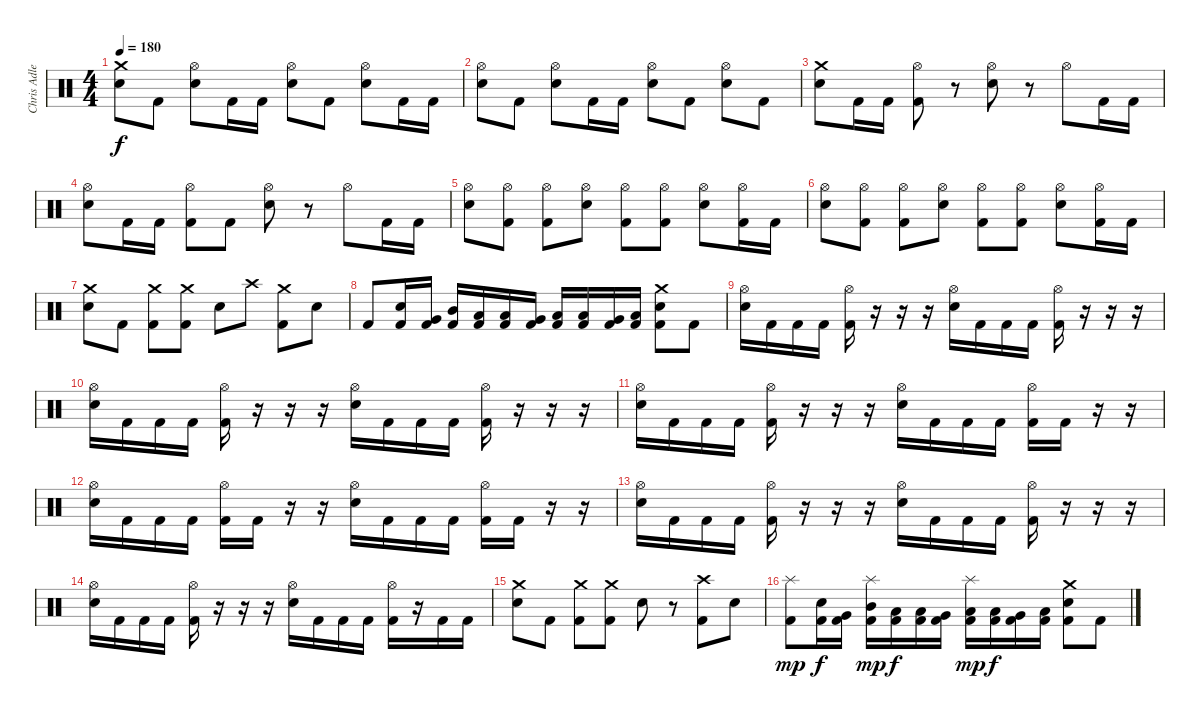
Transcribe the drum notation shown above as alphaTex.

\track ("Chris Adler" "Chris Adle") {instrument percussion}
\staff {score}
\articulation defaults
\ts (4 4)
\tempo 180
\clef neutral
\ks c
("Crash medium (hit)" "Electric Snare (hit)").8{dy f} "Kick (hit) 2".8 ("Hi-Hat (open)" "Electric Snare (hit)").8 "Kick (hit) 2".16 "Kick (hit) 2".16 ("Hi-Hat (open)" "Electric Snare (hit)").8 "Kick (hit) 2".8 ("Hi-Hat (open)" "Electric Snare (hit)").8 "Kick (hit) 2".16 "Kick (hit) 2".16 |
("Hi-Hat (open)" "Electric Snare (hit)").8 "Kick (hit) 2".8 ("Hi-Hat (open)" "Electric Snare (hit)").8 "Kick (hit) 2".16 "Kick (hit) 2".16 ("Hi-Hat (open)" "Electric Snare (hit)").8 "Kick (hit) 2".8 ("Hi-Hat (open)" "Electric Snare (hit)").8 "Kick (hit) 2".8 |
("Crash medium (hit)" "Electric Snare (hit)").8 "Kick (hit) 2".16 "Kick (hit) 2".16 ("Hi-Hat (open)" "Kick (hit) 2").8 r.8 ("Hi-Hat (open)" "Electric Snare (hit)").8 r.8 "Hi-Hat (open)".8 "Kick (hit) 2".16 "Kick (hit) 2".16 |
("Hi-Hat (open)" "Electric Snare (hit)").8 "Kick (hit) 2".16 "Kick (hit) 2".16 ("Hi-Hat (open)" "Kick (hit) 2").8 "Kick (hit) 2".8 ("Hi-Hat (open)" "Electric Snare (hit)").8 r.8 "Hi-Hat (open)".8 "Kick (hit) 2".16 "Kick (hit) 2".16 |
("Hi-Hat (open)" "Electric Snare (hit)").8 ("Hi-Hat (open)" "Kick (hit) 2").8 ("Hi-Hat (open)" "Kick (hit) 2").8 ("Hi-Hat (open)" "Electric Snare (hit)").8 ("Hi-Hat (open)" "Kick (hit) 2").8 ("Hi-Hat (open)" "Kick (hit) 2").8 ("Hi-Hat (open)" "Electric Snare (hit)").8 ("Hi-Hat (open)" "Kick (hit) 2").16 "Kick (hit) 2".16 |
("Hi-Hat (open)" "Electric Snare (hit)").8 ("Hi-Hat (open)" "Kick (hit) 2").8 ("Hi-Hat (open)" "Kick (hit) 2").8 ("Hi-Hat (open)" "Electric Snare (hit)").8 ("Hi-Hat (open)" "Kick (hit) 2").8 ("Hi-Hat (open)" "Kick (hit) 2").8 ("Hi-Hat (open)" "Electric Snare (hit)").8 ("Hi-Hat (open)" "Kick (hit) 2").16 "Kick (hit) 2".16 |
("Crash medium (hit)" "Electric Snare (hit)").8 "Kick (hit) 2".8 ("Crash medium (hit)" "Kick (hit) 2").8 ("Crash medium (hit)" "Kick (hit) 2").8 "Electric Snare (hit)".8 "Crash high (hit)".8 ("Crash medium (hit)" "Kick (hit) 2").8 "Electric Snare (hit)".8 |
"Kick (hit) 2".8 ("Electric Snare (hit)" "Kick (hit) 2").16 ("Very Low Tom (hit)" "Kick (hit) 2").16 ("Mid Tom (hit)" "Kick (hit) 2").16 ("Low Tom (hit)" "Kick (hit) 2").16 ("Low Floor Tom (hit)" "Kick (hit) 2").16 ("Very Low Tom (hit)" "Kick (hit) 2").16 ("Low Tom (hit)" "Kick (hit) 2").16 ("Low Floor Tom (hit)" "Kick (hit) 2").16 ("Very Low Tom (hit)" "Kick (hit) 2").16 ("Low Tom (hit)" "Kick (hit) 2").16 ("Crash medium (hit)" "Electric Snare (hit)" "Kick (hit) 2").8 "Kick (hit) 2".8 |
("Hi-Hat (open)" "Electric Snare (hit)").16 "Kick (hit) 2".16 "Kick (hit) 2".16 "Kick (hit) 2".16 ("Hi-Hat (open)" "Kick (hit) 2").16 r.16 r.16 r.16 ("Hi-Hat (open)" "Electric Snare (hit)").16 "Kick (hit) 2".16 "Kick (hit) 2".16 "Kick (hit) 2".16 ("Hi-Hat (open)" "Kick (hit) 2").16 r.16 r.16 r.16 |
("Hi-Hat (open)" "Electric Snare (hit)").16 "Kick (hit) 2".16 "Kick (hit) 2".16 "Kick (hit) 2".16 ("Hi-Hat (open)" "Kick (hit) 2").16 r.16 r.16 r.16 ("Hi-Hat (open)" "Electric Snare (hit)").16 "Kick (hit) 2".16 "Kick (hit) 2".16 "Kick (hit) 2".16 ("Hi-Hat (open)" "Kick (hit) 2").16 r.16 r.16 r.16 |
("Hi-Hat (open)" "Electric Snare (hit)").16 "Kick (hit) 2".16 "Kick (hit) 2".16 "Kick (hit) 2".16 ("Hi-Hat (open)" "Kick (hit) 2").16 r.16 r.16 r.16 ("Hi-Hat (open)" "Electric Snare (hit)").16 "Kick (hit) 2".16 "Kick (hit) 2".16 "Kick (hit) 2".16 ("Hi-Hat (open)" "Kick (hit) 2").16 "Kick (hit) 2".16 r.16 r.16 |
("Hi-Hat (open)" "Electric Snare (hit)").16 "Kick (hit) 2".16 "Kick (hit) 2".16 "Kick (hit) 2".16 ("Hi-Hat (open)" "Kick (hit) 2").16 "Kick (hit) 2".16 r.16 r.16 ("Hi-Hat (open)" "Electric Snare (hit)").16 "Kick (hit) 2".16 "Kick (hit) 2".16 "Kick (hit) 2".16 ("Hi-Hat (open)" "Kick (hit) 2").16 "Kick (hit) 2".16 r.16 r.16 |
("Hi-Hat (open)" "Electric Snare (hit)").16 "Kick (hit) 2".16 "Kick (hit) 2".16 "Kick (hit) 2".16 ("Hi-Hat (open)" "Kick (hit) 2").16 r.16 r.16 r.16 ("Hi-Hat (open)" "Electric Snare (hit)").16 "Kick (hit) 2".16 "Kick (hit) 2".16 "Kick (hit) 2".16 ("Hi-Hat (open)" "Kick (hit) 2").16 r.16 r.16 r.16 |
("Hi-Hat (open)" "Electric Snare (hit)").16 "Kick (hit) 2".16 "Kick (hit) 2".16 "Kick (hit) 2".16 ("Hi-Hat (open)" "Kick (hit) 2").16 r.16 r.16 r.16 ("Hi-Hat (open)" "Electric Snare (hit)").16 "Kick (hit) 2".16 "Kick (hit) 2".16 "Kick (hit) 2".16 ("Hi-Hat (open)" "Kick (hit) 2").16 r.16 "Kick (hit) 2".16 "Kick (hit) 2".16 |
("Crash medium (hit)" "Electric Snare (hit)").8 "Kick (hit) 2".8 ("Crash medium (hit)" "Kick (hit) 2").8 ("Crash medium (hit)" "Kick (hit) 2").8 "Electric Snare (hit)".8 r.8 ("Crash high (hit)" "Kick (hit) 2").8 "Electric Snare (hit)".8 |
("Splash (hit)" "Kick (hit) 2").8{dy mp} ("Electric Snare (hit)" "Kick (hit) 2").16{dy f} ("Very Low Tom (hit)" "Kick (hit) 2").16 ("Splash (hit)" "Mid Tom (hit)" "Kick (hit) 2").16{dy mp} ("Low Tom (hit)" "Kick (hit) 2").16{dy f} ("Low Floor Tom (hit)" "Kick (hit) 2").16 ("Very Low Tom (hit)" "Kick (hit) 2").16 ("Splash (hit)" "Low Tom (hit)" "Kick (hit) 2").16{dy mp} ("Low Floor Tom (hit)" "Kick (hit) 2").16{dy f} ("Very Low Tom (hit)" "Kick (hit) 2").16 ("Low Tom (hit)" "Kick (hit) 2").16 ("Crash medium (hit)" "Electric Snare (hit)" "Kick (hit) 2").8 "Kick (hit) 2".8
